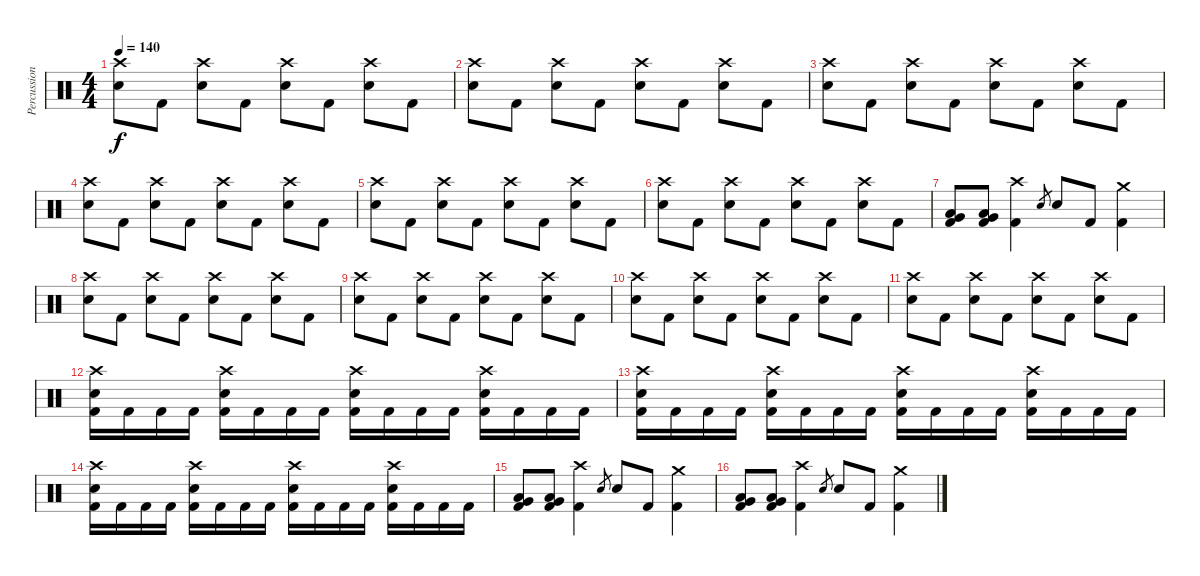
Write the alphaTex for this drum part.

\track ("Percussion" "Percussion") {instrument percussion}
\staff {score}
\articulation defaults
\ts (4 4)
\tempo 140
\clef neutral
\ks c
("Crash high (hit)" "Snare (hit) 2").8{dy f} "Kick (hit) 2".8 ("Crash high (hit)" "Snare (hit) 2").8 "Kick (hit) 2".8 ("Crash high (hit)" "Snare (hit) 2").8 "Kick (hit) 2".8 ("Crash high (hit)" "Snare (hit) 2").8 "Kick (hit) 2".8 |
("Crash high (hit)" "Snare (hit) 2").8 "Kick (hit) 2".8 ("Crash high (hit)" "Snare (hit) 2").8 "Kick (hit) 2".8 ("Crash high (hit)" "Snare (hit) 2").8 "Kick (hit) 2".8 ("Crash high (hit)" "Snare (hit) 2").8 "Kick (hit) 2".8 |
("Crash high (hit)" "Snare (hit) 2").8 "Kick (hit) 2".8 ("Crash high (hit)" "Snare (hit) 2").8 "Kick (hit) 2".8 ("Crash high (hit)" "Snare (hit) 2").8 "Kick (hit) 2".8 ("Crash high (hit)" "Snare (hit) 2").8 "Kick (hit) 2".8 |
("Crash high (hit)" "Snare (hit) 2").8 "Kick (hit) 2".8 ("Crash high (hit)" "Snare (hit) 2").8 "Kick (hit) 2".8 ("Crash high (hit)" "Snare (hit) 2").8 "Kick (hit) 2".8 ("Crash high (hit)" "Snare (hit) 2").8 "Kick (hit) 2".8 |
("Crash high (hit)" "Snare (hit) 2").8 "Kick (hit) 2".8 ("Crash high (hit)" "Snare (hit) 2").8 "Kick (hit) 2".8 ("Crash high (hit)" "Snare (hit) 2").8 "Kick (hit) 2".8 ("Crash high (hit)" "Snare (hit) 2").8 "Kick (hit) 2".8 |
("Crash high (hit)" "Snare (hit) 2").8 "Kick (hit) 2".8 ("Crash high (hit)" "Snare (hit) 2").8 "Kick (hit) 2".8 ("Crash high (hit)" "Snare (hit) 2").8 "Kick (hit) 2".8 ("Crash high (hit)" "Snare (hit) 2").8 "Kick (hit) 2".8 |
("Low Tom (hit)" "Very Low Tom (hit)" "Kick (hit) 2").8 ("Low Tom (hit)" "Very Low Tom (hit)" "Kick (hit) 2").8 ("Crash high (hit)" "Kick (hit) 2").4 "Snare (hit) 2".8{gr} "Snare (hit) 2".8 "Kick (hit) 2".8 ("Crash medium (hit)" "Kick (hit) 2").4 |
("Crash high (hit)" "Snare (hit) 2").8 "Kick (hit) 2".8 ("Crash high (hit)" "Snare (hit) 2").8 "Kick (hit) 2".8 ("Crash high (hit)" "Snare (hit) 2").8 "Kick (hit) 2".8 ("Crash high (hit)" "Snare (hit) 2").8 "Kick (hit) 2".8 |
("Crash high (hit)" "Snare (hit) 2").8 "Kick (hit) 2".8 ("Crash high (hit)" "Snare (hit) 2").8 "Kick (hit) 2".8 ("Crash high (hit)" "Snare (hit) 2").8 "Kick (hit) 2".8 ("Crash high (hit)" "Snare (hit) 2").8 "Kick (hit) 2".8 |
("Crash high (hit)" "Snare (hit) 2").8 "Kick (hit) 2".8 ("Crash high (hit)" "Snare (hit) 2").8 "Kick (hit) 2".8 ("Crash high (hit)" "Snare (hit) 2").8 "Kick (hit) 2".8 ("Crash high (hit)" "Snare (hit) 2").8 "Kick (hit) 2".8 |
("Crash high (hit)" "Snare (hit) 2").8 "Kick (hit) 2".8 ("Crash high (hit)" "Snare (hit) 2").8 "Kick (hit) 2".8 ("Crash high (hit)" "Snare (hit) 2").8 "Kick (hit) 2".8 ("Crash high (hit)" "Snare (hit) 2").8 "Kick (hit) 2".8 |
("Crash high (hit)" "Snare (hit) 2" "Kick (hit) 2").16 "Kick (hit) 2".16 "Kick (hit) 2".16 "Kick (hit) 2".16 ("Crash high (hit)" "Snare (hit) 2" "Kick (hit) 2").16 "Kick (hit) 2".16 "Kick (hit) 2".16 "Kick (hit) 2".16 ("Crash high (hit)" "Snare (hit) 2" "Kick (hit) 2").16 "Kick (hit) 2".16 "Kick (hit) 2".16 "Kick (hit) 2".16 ("Crash high (hit)" "Snare (hit) 2" "Kick (hit) 2").16 "Kick (hit) 2".16 "Kick (hit) 2".16 "Kick (hit) 2".16 |
("Crash high (hit)" "Snare (hit) 2" "Kick (hit) 2").16 "Kick (hit) 2".16 "Kick (hit) 2".16 "Kick (hit) 2".16 ("Crash high (hit)" "Snare (hit) 2" "Kick (hit) 2").16 "Kick (hit) 2".16 "Kick (hit) 2".16 "Kick (hit) 2".16 ("Crash high (hit)" "Snare (hit) 2" "Kick (hit) 2").16 "Kick (hit) 2".16 "Kick (hit) 2".16 "Kick (hit) 2".16 ("Crash high (hit)" "Snare (hit) 2" "Kick (hit) 2").16 "Kick (hit) 2".16 "Kick (hit) 2".16 "Kick (hit) 2".16 |
("Crash high (hit)" "Snare (hit) 2" "Kick (hit) 2").16 "Kick (hit) 2".16 "Kick (hit) 2".16 "Kick (hit) 2".16 ("Crash high (hit)" "Snare (hit) 2" "Kick (hit) 2").16 "Kick (hit) 2".16 "Kick (hit) 2".16 "Kick (hit) 2".16 ("Crash high (hit)" "Snare (hit) 2" "Kick (hit) 2").16 "Kick (hit) 2".16 "Kick (hit) 2".16 "Kick (hit) 2".16 ("Crash high (hit)" "Snare (hit) 2" "Kick (hit) 2").16 "Kick (hit) 2".16 "Kick (hit) 2".16 "Kick (hit) 2".16 |
("Low Tom (hit)" "Very Low Tom (hit)" "Kick (hit) 2").8 ("Low Tom (hit)" "Very Low Tom (hit)" "Kick (hit) 2").8 ("Crash high (hit)" "Kick (hit) 2").4 "Snare (hit) 2".8{gr} "Snare (hit) 2".8 "Kick (hit) 2".8 ("Crash medium (hit)" "Kick (hit) 2").4 |
("Low Tom (hit)" "Very Low Tom (hit)" "Kick (hit) 2").8 ("Low Tom (hit)" "Very Low Tom (hit)" "Kick (hit) 2").8 ("Crash high (hit)" "Kick (hit) 2").4 "Snare (hit) 2".8{gr} "Snare (hit) 2".8 "Kick (hit) 2".8 ("Crash medium (hit)" "Kick (hit) 2").4
